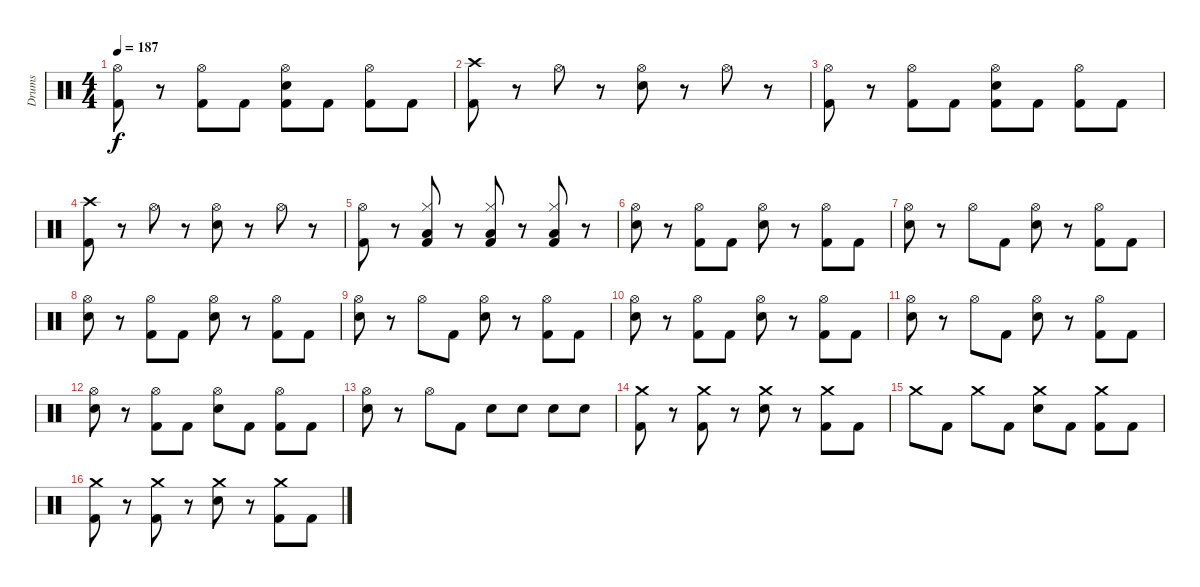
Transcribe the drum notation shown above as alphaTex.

\track ("Drums" "Drums") {instrument percussion}
\staff {score}
\articulation defaults
\ts (4 4)
\tempo 187
\clef neutral
\ks c
("Hi-Hat (open)" "Kick (hit) 2").8{dy f} r.8 ("Hi-Hat (open)" "Kick (hit) 2").8 "Kick (hit) 2".8 ("Hi-Hat (open)" "Electric Snare (hit)" "Kick (hit) 2").8 "Kick (hit) 2".8 ("Hi-Hat (open)" "Kick (hit) 2").8 "Kick (hit) 2".8 |
("Crash high (hit)" "Kick (hit) 2").8 r.8 "Hi-Hat (open)".8 r.8 ("Hi-Hat (open)" "Electric Snare (hit)").8 r.8 "Hi-Hat (open)".8 r.8 |
("Hi-Hat (open)" "Kick (hit) 2").8 r.8 ("Hi-Hat (open)" "Kick (hit) 2").8 "Kick (hit) 2".8 ("Hi-Hat (open)" "Electric Snare (hit)" "Kick (hit) 2").8 "Kick (hit) 2".8 ("Hi-Hat (open)" "Kick (hit) 2").8 "Kick (hit) 2".8 |
("Crash high (hit)" "Kick (hit) 2").8 r.8 "Hi-Hat (open)".8 r.8 ("Hi-Hat (open)" "Electric Snare (hit)").8 r.8 "Hi-Hat (open)".8 r.8 |
("Hi-Hat (open)" "Kick (hit) 2").8 r.8 ("Hi-Hat (closed)" "Low Tom (hit)" "Kick (hit) 2").8 r.8 ("Hi-Hat (closed)" "Low Tom (hit)" "Kick (hit) 2").8 r.8 ("Hi-Hat (closed)" "Low Tom (hit)" "Kick (hit) 2").8 r.8 |
("Hi-Hat (open)" "Electric Snare (hit)").8 r.8 ("Hi-Hat (open)" "Kick (hit) 2").8 "Kick (hit) 2".8 ("Hi-Hat (open)" "Electric Snare (hit)").8 r.8 ("Hi-Hat (open)" "Kick (hit) 2").8 "Kick (hit) 2".8 |
("Hi-Hat (open)" "Electric Snare (hit)").8 r.8 "Hi-Hat (open)".8 "Kick (hit) 2".8 ("Hi-Hat (open)" "Electric Snare (hit)").8 r.8 ("Hi-Hat (open)" "Kick (hit) 2").8 "Kick (hit) 2".8 |
("Hi-Hat (open)" "Electric Snare (hit)").8 r.8 ("Hi-Hat (open)" "Kick (hit) 2").8 "Kick (hit) 2".8 ("Hi-Hat (open)" "Electric Snare (hit)").8 r.8 ("Hi-Hat (open)" "Kick (hit) 2").8 "Kick (hit) 2".8 |
("Hi-Hat (open)" "Electric Snare (hit)").8 r.8 "Hi-Hat (open)".8 "Kick (hit) 2".8 ("Hi-Hat (open)" "Electric Snare (hit)").8 r.8 ("Hi-Hat (open)" "Kick (hit) 2").8 "Kick (hit) 2".8 |
("Hi-Hat (open)" "Electric Snare (hit)").8 r.8 ("Hi-Hat (open)" "Kick (hit) 2").8 "Kick (hit) 2".8 ("Hi-Hat (open)" "Electric Snare (hit)").8 r.8 ("Hi-Hat (open)" "Kick (hit) 2").8 "Kick (hit) 2".8 |
("Hi-Hat (open)" "Electric Snare (hit)").8 r.8 "Hi-Hat (open)".8 "Kick (hit) 2".8 ("Hi-Hat (open)" "Electric Snare (hit)").8 r.8 ("Hi-Hat (open)" "Kick (hit) 2").8 "Kick (hit) 2".8 |
("Hi-Hat (open)" "Electric Snare (hit)").8 r.8 ("Hi-Hat (open)" "Kick (hit) 2").8 "Kick (hit) 2".8 ("Hi-Hat (open)" "Electric Snare (hit)").8 "Kick (hit) 2".8 ("Hi-Hat (open)" "Kick (hit) 2").8 "Kick (hit) 2".8 |
("Hi-Hat (open)" "Electric Snare (hit)").8 r.8 "Hi-Hat (open)".8 "Kick (hit) 2".8 "Electric Snare (hit)".8 "Electric Snare (hit)".8 "Electric Snare (hit)".8 "Electric Snare (hit)".8 |
("Crash medium (hit)" "Kick (hit) 2").8 r.8 ("Crash medium (hit)" "Kick (hit) 2").8 r.8 ("Crash medium (hit)" "Electric Snare (hit)").8 r.8 ("Crash medium (hit)" "Kick (hit) 2").8 "Kick (hit) 2".8 |
"Crash medium (hit)".8 "Kick (hit) 2".8 "Crash medium (hit)".8 "Kick (hit) 2".8 ("Crash medium (hit)" "Electric Snare (hit)").8 "Kick (hit) 2".8 ("Crash medium (hit)" "Kick (hit) 2").8 "Kick (hit) 2".8 |
("Crash medium (hit)" "Kick (hit) 2").8 r.8 ("Crash medium (hit)" "Kick (hit) 2").8 r.8 ("Crash medium (hit)" "Electric Snare (hit)").8 r.8 ("Crash medium (hit)" "Kick (hit) 2").8 "Kick (hit) 2".8
